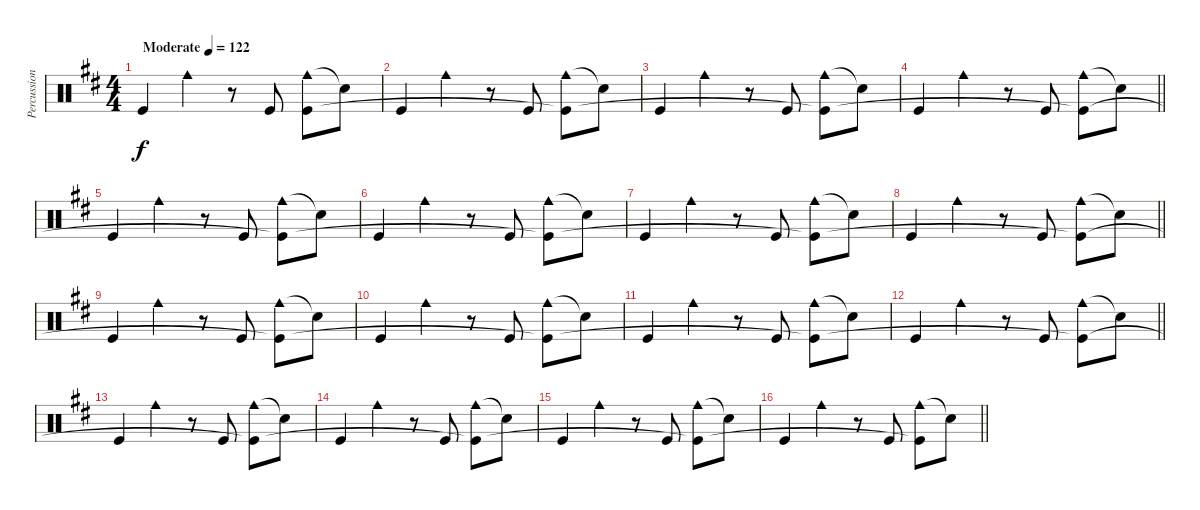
\track ("Percussions" "Percussion") {instrument percussion}
\staff {score}
\articulation defaults
\ts (4 4)
\tempo (122 "Moderate")
\clef neutral
\ks d "Kick (hit)".4{dy f} "Cowbell medium (hit)".4
r.8 "Kick (hit)".8 ("Cowbell medium (hit)" "Kick (hit)").8 "Snare (hit)"{t}.8 |
"Kick (hit)".4 "Cowbell medium (hit)".4 r.8 "Kick (hit)".8 ("Cowbell medium (hit)" "Kick (hit)"{t}).8 "Snare (hit)"{t}.8 |
"Kick (hit)".4 "Cowbell medium (hit)".4 r.8 "Kick (hit)".8 ("Cowbell medium (hit)" "Kick (hit)"{t}).8 "Snare (hit)"{t}.8 |
\barLineRight lightlight "Kick (hit)".4 "Cowbell medium (hit)".4
r.8 "Kick (hit)".8 ("Cowbell medium (hit)" "Kick (hit)"{t}).8 "Snare (hit)"{t}.8 |
"Kick (hit)".4 "Cowbell medium (hit)".4 r.8 "Kick (hit)".8 ("Cowbell medium (hit)" "Kick (hit)"{t}).8 "Snare (hit)"{t}.8 |
"Kick (hit)".4 "Cowbell medium (hit)".4 r.8 "Kick (hit)".8 ("Cowbell medium (hit)" "Kick (hit)"{t}).8 "Snare (hit)"{t}.8 |
"Kick (hit)".4 "Cowbell medium (hit)".4 r.8 "Kick (hit)".8 ("Cowbell medium (hit)" "Kick (hit)"{t}).8 "Snare (hit)"{t}.8 |
\barLineRight lightlight "Kick (hit)".4 "Cowbell medium (hit)".4
r.8 "Kick (hit)".8 ("Cowbell medium (hit)" "Kick (hit)"{t}).8 "Snare (hit)"{t}.8 |
"Kick (hit)".4 "Cowbell medium (hit)".4 r.8 "Kick (hit)".8 ("Cowbell medium (hit)" "Kick (hit)"{t}).8 "Snare (hit)"{t}.8 |
"Kick (hit)".4 "Cowbell medium (hit)".4 r.8 "Kick (hit)".8 ("Cowbell medium (hit)" "Kick (hit)"{t}).8 "Snare (hit)"{t}.8 |
"Kick (hit)".4 "Cowbell medium (hit)".4 r.8 "Kick (hit)".8 ("Cowbell medium (hit)" "Kick (hit)"{t}).8 "Snare (hit)"{t}.8 |
\barLineRight lightlight "Kick (hit)".4 "Cowbell medium (hit)".4
r.8 "Kick (hit)".8 ("Cowbell medium (hit)" "Kick (hit)"{t}).8 "Snare (hit)"{t}.8 |
"Kick (hit)".4 "Cowbell medium (hit)".4 r.8 "Kick (hit)".8 ("Cowbell medium (hit)" "Kick (hit)"{t}).8 "Snare (hit)"{t}.8 |
"Kick (hit)".4 "Cowbell medium (hit)".4 r.8 "Kick (hit)".8 ("Cowbell medium (hit)" "Kick (hit)"{t}).8 "Snare (hit)"{t}.8 |
"Kick (hit)".4 "Cowbell medium (hit)".4 r.8 "Kick (hit)".8 ("Cowbell medium (hit)" "Kick (hit)"{t}).8 "Snare (hit)"{t}.8 |
\barLineRight lightlight "Kick (hit)".4 "Cowbell medium (hit)".4
r.8 "Kick (hit)".8 ("Cowbell medium (hit)" "Kick (hit)"{t}).8 "Snare (hit)"{t}.8
